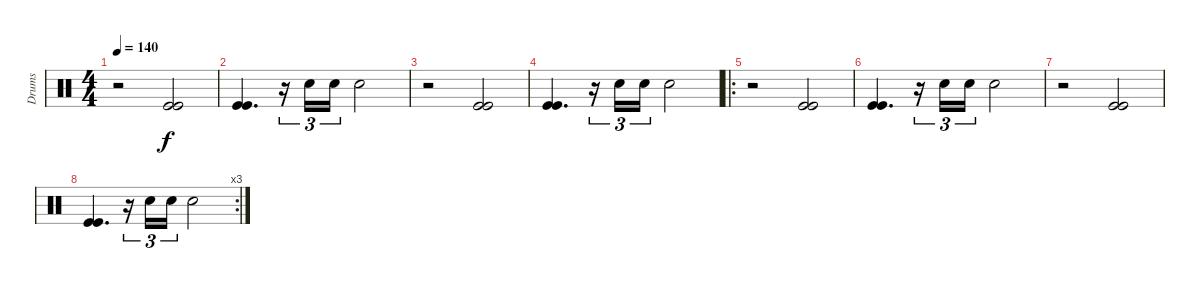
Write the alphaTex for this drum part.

\track ("Drums" "Drums") {instrument percussion}
\staff {score}
\articulation defaults
\ts (4 4)
\tempo 140
\clef neutral
\ks c
r.2{dy f} ("Kick (hit)" "Kick (hit)").2 |
("Kick (hit)" "Kick (hit)").4{d} r.16{tu (3 2)} "Electric Snare (hit)".16{tu (3 2)} "Electric Snare (hit)".16{tu (3 2)} "Electric Snare (hit)".2 |
r.2 ("Kick (hit)" "Kick (hit)").2 |
("Kick (hit)" "Kick (hit)").4{d} r.16{tu (3 2)} "Electric Snare (hit)".16{tu (3 2)} "Electric Snare (hit)".16{tu (3 2)} "Electric Snare (hit)".2 |
\ro
r.2 ("Kick (hit)" "Kick (hit)").2 |
("Kick (hit)" "Kick (hit)").4{d} r.16{tu (3 2)} "Electric Snare (hit)".16{tu (3 2)} "Electric Snare (hit)".16{tu (3 2)} "Electric Snare (hit)".2 |
r.2 ("Kick (hit)" "Kick (hit)").2 |
\rc 3
("Kick (hit)" "Kick (hit)").4{d} r.16{tu (3 2)} "Electric Snare (hit)".16{tu (3 2)} "Electric Snare (hit)".16{tu (3 2)} "Electric Snare (hit)".2
